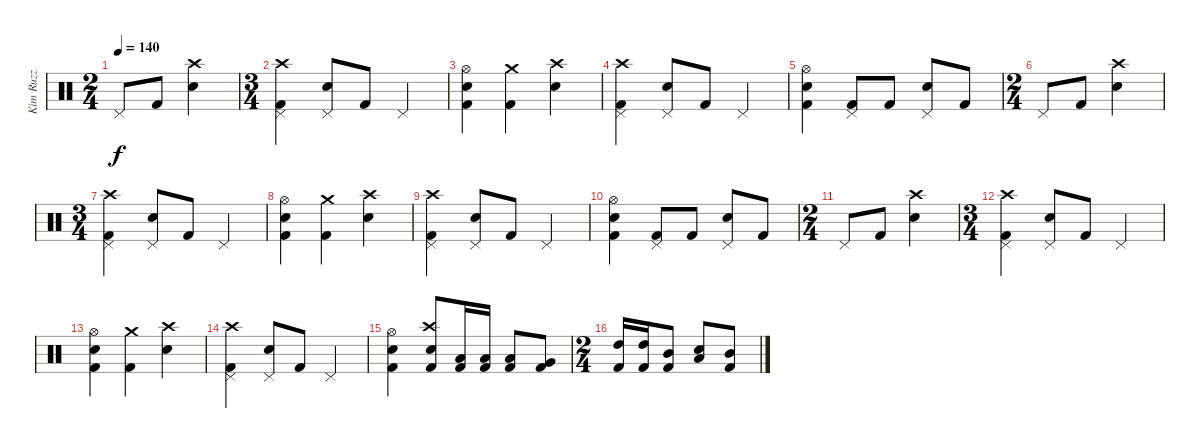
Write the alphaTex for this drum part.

\track ("Kim Ruzz" "Kim Ruzz") {instrument percussion}
\staff {score}
\articulation defaults
\ts (2 4)
\tempo 140
\clef neutral
\ks c "Pedal Hi-Hat (hit)".8{dy f} "Kick (hit) 2".8
("Crash high (hit)" "Snare (hit) 2").4 |
\ts (3 4)
("Crash high (hit)" "Pedal Hi-Hat (hit)" "Kick (hit) 2").4 ("Pedal Hi-Hat (hit)" "Snare (hit) 2").8 "Kick (hit) 2".8 "Pedal Hi-Hat (hit)".4 |
("Hi-Hat (open)" "Snare (hit) 2" "Kick (hit) 2").4 ("Crash medium (hit)" "Kick (hit) 2").4 ("Crash high (hit)" "Snare (hit) 2").4 |
("Crash high (hit)" "Pedal Hi-Hat (hit)" "Kick (hit) 2").4 ("Pedal Hi-Hat (hit)" "Snare (hit) 2").8 "Kick (hit) 2".8 "Pedal Hi-Hat (hit)".4 |
("Hi-Hat (open)" "Snare (hit) 2" "Kick (hit) 2").4 ("Pedal Hi-Hat (hit)" "Kick (hit) 2").8 "Kick (hit) 2".8 ("Pedal Hi-Hat (hit)" "Snare (hit) 2").8 "Kick (hit) 2".8 |
\ts (2 4)
"Pedal Hi-Hat (hit)".8 "Kick (hit) 2".8 ("Crash high (hit)" "Snare (hit) 2").4 |
\ts (3 4)
("Crash high (hit)" "Pedal Hi-Hat (hit)" "Kick (hit) 2").4 ("Pedal Hi-Hat (hit)" "Snare (hit) 2").8 "Kick (hit) 2".8 "Pedal Hi-Hat (hit)".4 |
("Hi-Hat (open)" "Snare (hit) 2" "Kick (hit) 2").4 ("Crash medium (hit)" "Kick (hit) 2").4 ("Crash high (hit)" "Snare (hit) 2").4 |
("Crash high (hit)" "Pedal Hi-Hat (hit)" "Kick (hit) 2").4 ("Pedal Hi-Hat (hit)" "Snare (hit) 2").8 "Kick (hit) 2".8 "Pedal Hi-Hat (hit)".4 |
("Hi-Hat (open)" "Snare (hit) 2" "Kick (hit) 2").4 ("Pedal Hi-Hat (hit)" "Kick (hit) 2").8 "Kick (hit) 2".8 ("Pedal Hi-Hat (hit)" "Snare (hit) 2").8 "Kick (hit) 2".8 |
\ts (2 4)
"Pedal Hi-Hat (hit)".8 "Kick (hit) 2".8 ("Crash high (hit)" "Snare (hit) 2").4 |
\ts (3 4)
("Crash high (hit)" "Pedal Hi-Hat (hit)" "Kick (hit) 2").4 ("Pedal Hi-Hat (hit)" "Snare (hit) 2").8 "Kick (hit) 2".8 "Pedal Hi-Hat (hit)".4 |
("Hi-Hat (open)" "Snare (hit) 2" "Kick (hit) 2").4 ("Crash medium (hit)" "Kick (hit) 2").4 ("Crash high (hit)" "Snare (hit) 2").4 |
("Crash high (hit)" "Pedal Hi-Hat (hit)" "Kick (hit) 2").4 ("Pedal Hi-Hat (hit)" "Snare (hit) 2").8 "Kick (hit) 2".8 "Pedal Hi-Hat (hit)".4 |
("Hi-Hat (open)" "Snare (hit) 2" "Kick (hit) 2").4 ("Crash high (hit)" "Snare (hit) 2" "Kick (hit) 2").8 ("Low Tom (hit)" "Kick (hit) 2").16 ("Low Tom (hit)" "Kick (hit) 2").16 ("Low Tom (hit)" "Kick (hit) 2").8 ("Very Low Tom (hit)" "Kick (hit) 2").8 |
\ts (2 4)
("High Tom (hit)" "Kick (hit) 2").16 ("High Tom (hit)" "Kick (hit) 2").16 ("Mid Tom (hit)" "Kick (hit) 2").8 ("Low Tom (hit)" "Snare (hit) 2").8 ("Mid Tom (hit)" "Kick (hit) 2").8
